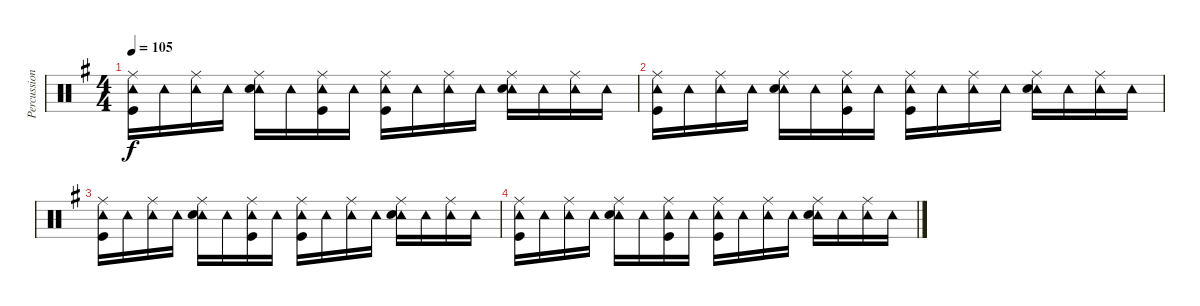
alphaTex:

\track ("Percussion" "Percussion") {instrument percussion}
\staff {score}
\articulation defaults
\ts (4 4)
\tempo 105
\clef neutral
\ks g
("Ride (middle)" "Tambourine (hit)" "Kick (hit)").16{dy f} "Tambourine (hit)".16 ("Ride (middle)" "Tambourine (hit)").16 "Tambourine (hit)".16 ("Ride (middle)" "Tambourine (hit)" "Snare (hit) 2").16 "Tambourine (hit)".16 ("Ride (middle)" "Tambourine (hit)" "Kick (hit)").16 "Tambourine (hit)".16 ("Ride (middle)" "Tambourine (hit)" "Kick (hit)").16 "Tambourine (hit)".16 ("Ride (middle)" "Tambourine (hit)").16 "Tambourine (hit)".16 ("Ride (middle)" "Tambourine (hit)" "Snare (hit) 2").16 "Tambourine (hit)".16 ("Ride (middle)" "Tambourine (hit)").16 "Tambourine (hit)".16 |
("Ride (middle)" "Tambourine (hit)" "Kick (hit)").16 "Tambourine (hit)".16 ("Ride (middle)" "Tambourine (hit)").16 "Tambourine (hit)".16 ("Ride (middle)" "Tambourine (hit)" "Snare (hit) 2").16 "Tambourine (hit)".16 ("Ride (middle)" "Tambourine (hit)" "Kick (hit)").16 "Tambourine (hit)".16 ("Ride (middle)" "Tambourine (hit)" "Kick (hit)").16 "Tambourine (hit)".16 ("Ride (middle)" "Tambourine (hit)").16 "Tambourine (hit)".16 ("Ride (middle)" "Tambourine (hit)" "Snare (hit) 2").16 "Tambourine (hit)".16 ("Ride (middle)" "Tambourine (hit)").16 "Tambourine (hit)".16 |
("Ride (middle)" "Tambourine (hit)" "Kick (hit)").16 "Tambourine (hit)".16 ("Ride (middle)" "Tambourine (hit)").16 "Tambourine (hit)".16 ("Ride (middle)" "Tambourine (hit)" "Snare (hit) 2").16 "Tambourine (hit)".16 ("Ride (middle)" "Tambourine (hit)" "Kick (hit)").16 "Tambourine (hit)".16 ("Ride (middle)" "Tambourine (hit)" "Kick (hit)").16 "Tambourine (hit)".16 ("Ride (middle)" "Tambourine (hit)").16 "Tambourine (hit)".16 ("Ride (middle)" "Tambourine (hit)" "Snare (hit) 2").16 "Tambourine (hit)".16 ("Ride (middle)" "Tambourine (hit)").16 "Tambourine (hit)".16 |
("Ride (middle)" "Tambourine (hit)" "Kick (hit)").16 "Tambourine (hit)".16 ("Ride (middle)" "Tambourine (hit)").16 "Tambourine (hit)".16 ("Ride (middle)" "Tambourine (hit)" "Snare (hit) 2").16 "Tambourine (hit)".16 ("Ride (middle)" "Tambourine (hit)" "Kick (hit)").16 "Tambourine (hit)".16 ("Ride (middle)" "Tambourine (hit)" "Kick (hit)").16 "Tambourine (hit)".16 ("Ride (middle)" "Tambourine (hit)").16 "Tambourine (hit)".16 ("Ride (middle)" "Tambourine (hit)" "Snare (hit) 2").16 "Tambourine (hit)".16 ("Ride (middle)" "Tambourine (hit)").16 "Tambourine (hit)".16
